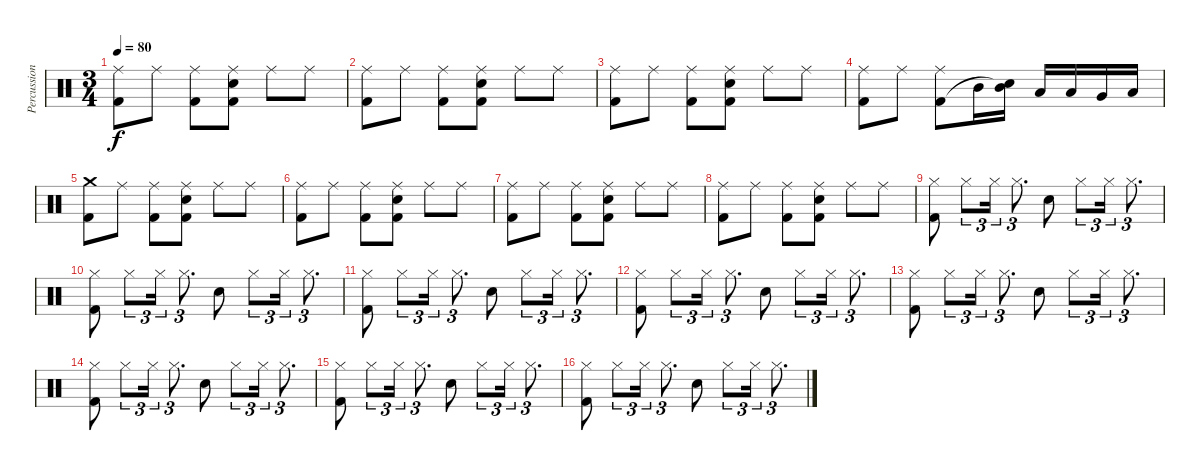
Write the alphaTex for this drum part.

\track ("Percussion" "Percussion") {instrument percussion}
\staff {score}
\articulation defaults
\ts (3 4)
\tempo 80
\clef neutral
\ks c
("Ride (middle)" "Kick (hit) 2").8{dy f} "Ride (middle)".8 ("Ride (middle)" "Kick (hit) 2").8 ("Ride (middle)" "Snare (hit) 2" "Kick (hit) 2").8 "Ride (middle)".8 "Ride (middle)".8 |
("Ride (middle)" "Kick (hit) 2").8 "Ride (middle)".8 ("Ride (middle)" "Kick (hit) 2").8 ("Ride (middle)" "Snare (hit) 2" "Kick (hit) 2").8 "Ride (middle)".8 "Ride (middle)".8 |
("Ride (middle)" "Kick (hit) 2").8 "Ride (middle)".8 ("Ride (middle)" "Kick (hit) 2").8 ("Ride (middle)" "Snare (hit) 2" "Kick (hit) 2").8 "Ride (middle)".8 "Ride (middle)".8 |
("Ride (middle)" "Kick (hit) 2").8 "Ride (middle)".8 ("Ride (middle)" "Kick (hit) 2").8 "Mid Tom (hit)".16 ("Mid Tom (hit)" "Snare (hit)"{t}).16 "Low Tom (hit)".16 "Low Tom (hit)".16 "Very Low Tom (hit)".16 "Low Floor Tom (hit)".16 |
("Crash medium (hit)" "Kick (hit) 2").8 "Ride (middle)".8 ("Ride (middle)" "Kick (hit) 2").8 ("Ride (middle)" "Snare (hit) 2" "Kick (hit) 2").8 "Ride (middle)".8 "Ride (middle)".8 |
("Ride (middle)" "Kick (hit) 2").8 "Ride (middle)".8 ("Ride (middle)" "Kick (hit) 2").8 ("Ride (middle)" "Snare (hit) 2" "Kick (hit) 2").8 "Ride (middle)".8 "Ride (middle)".8 |
("Ride (middle)" "Kick (hit) 2").8 "Ride (middle)".8 ("Ride (middle)" "Kick (hit) 2").8 ("Ride (middle)" "Snare (hit) 2" "Kick (hit) 2").8 "Ride (middle)".8 "Ride (middle)".8 |
("Ride (middle)" "Kick (hit) 2").8 "Ride (middle)".8 ("Ride (middle)" "Kick (hit) 2").8 ("Ride (middle)" "Snare (hit) 2" "Kick (hit) 2").8 "Ride (middle)".8 "Ride (middle)".8 |
("Hi-Hat (closed)" "Kick (hit) 2").8 "Hi-Hat (closed)".8{tu (3 2)} "Hi-Hat (closed)".16{tu (3 2)} "Hi-Hat (closed)".8{d tu (3 2)} "Snare (hit) 2".8 "Hi-Hat (closed)".8{tu (3 2)} "Hi-Hat (closed)".16{tu (3 2)} "Hi-Hat (closed)".8{d tu (3 2)} |
("Hi-Hat (closed)" "Kick (hit) 2").8 "Hi-Hat (closed)".8{tu (3 2)} "Hi-Hat (closed)".16{tu (3 2)} "Hi-Hat (closed)".8{d tu (3 2)} "Snare (hit) 2".8 "Hi-Hat (closed)".8{tu (3 2)} "Hi-Hat (closed)".16{tu (3 2)} "Hi-Hat (closed)".8{d tu (3 2)} |
("Hi-Hat (closed)" "Kick (hit) 2").8 "Hi-Hat (closed)".8{tu (3 2)} "Hi-Hat (closed)".16{tu (3 2)} "Hi-Hat (closed)".8{d tu (3 2)} "Snare (hit) 2".8 "Hi-Hat (closed)".8{tu (3 2)} "Hi-Hat (closed)".16{tu (3 2)} "Hi-Hat (closed)".8{d tu (3 2)} |
("Hi-Hat (closed)" "Kick (hit) 2").8 "Hi-Hat (closed)".8{tu (3 2)} "Hi-Hat (closed)".16{tu (3 2)} "Hi-Hat (closed)".8{d tu (3 2)} "Snare (hit) 2".8 "Hi-Hat (closed)".8{tu (3 2)} "Hi-Hat (closed)".16{tu (3 2)} "Hi-Hat (closed)".8{d tu (3 2)} |
("Hi-Hat (closed)" "Kick (hit) 2").8 "Hi-Hat (closed)".8{tu (3 2)} "Hi-Hat (closed)".16{tu (3 2)} "Hi-Hat (closed)".8{d tu (3 2)} "Snare (hit) 2".8 "Hi-Hat (closed)".8{tu (3 2)} "Hi-Hat (closed)".16{tu (3 2)} "Hi-Hat (closed)".8{d tu (3 2)} |
("Hi-Hat (closed)" "Kick (hit) 2").8 "Hi-Hat (closed)".8{tu (3 2)} "Hi-Hat (closed)".16{tu (3 2)} "Hi-Hat (closed)".8{d tu (3 2)} "Snare (hit) 2".8 "Hi-Hat (closed)".8{tu (3 2)} "Hi-Hat (closed)".16{tu (3 2)} "Hi-Hat (closed)".8{d tu (3 2)} |
("Hi-Hat (closed)" "Kick (hit) 2").8 "Hi-Hat (closed)".8{tu (3 2)} "Hi-Hat (closed)".16{tu (3 2)} "Hi-Hat (closed)".8{d tu (3 2)} "Snare (hit) 2".8 "Hi-Hat (closed)".8{tu (3 2)} "Hi-Hat (closed)".16{tu (3 2)} "Hi-Hat (closed)".8{d tu (3 2)} |
("Hi-Hat (closed)" "Kick (hit) 2").8 "Hi-Hat (closed)".8{tu (3 2)} "Hi-Hat (closed)".16{tu (3 2)} "Hi-Hat (closed)".8{d tu (3 2)} "Snare (hit) 2".8 "Hi-Hat (closed)".8{tu (3 2)} "Hi-Hat (closed)".16{tu (3 2)} "Hi-Hat (closed)".8{d tu (3 2)}
